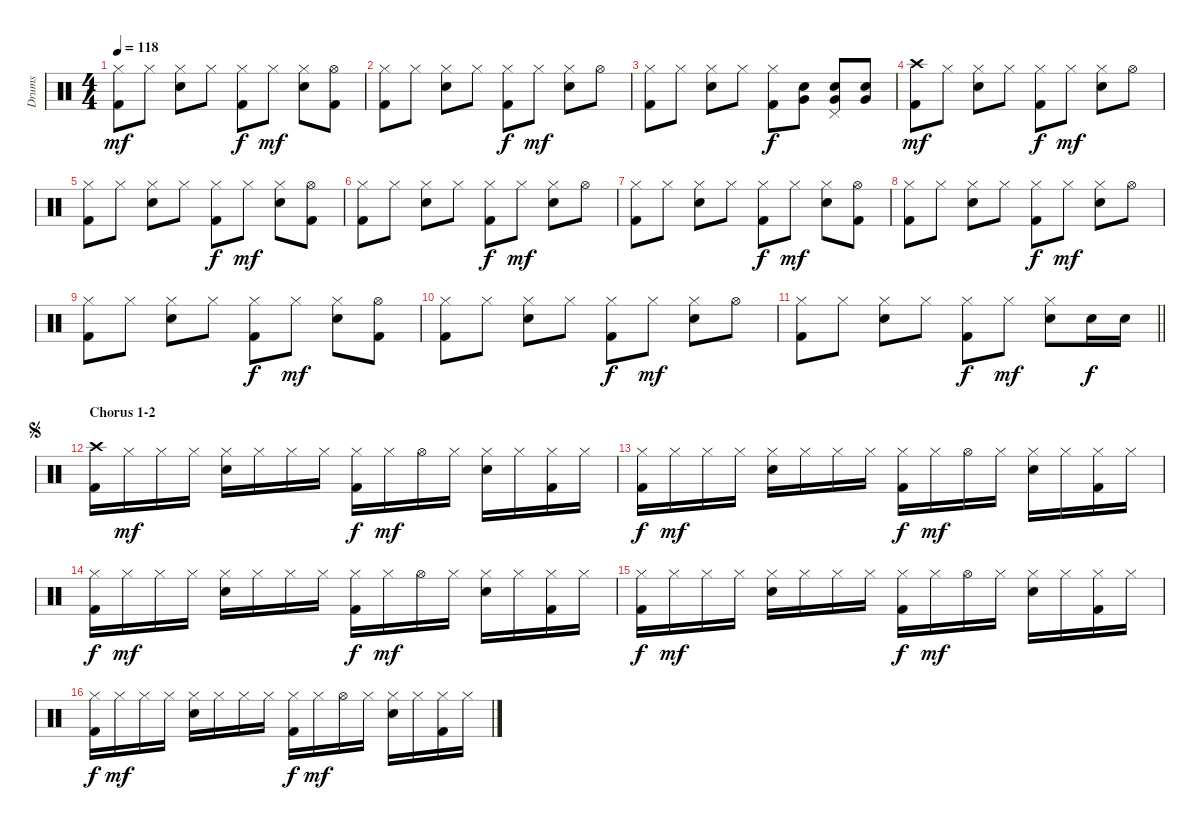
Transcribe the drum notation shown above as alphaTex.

\track ("Drums" "Drums") {instrument percussion}
\staff {score}
\articulation defaults
\ts (4 4)
\tempo 118
\clef neutral
\ks c
("Hi-Hat (closed)" "Kick (hit) 2").8{dy mf} "Hi-Hat (closed)".8 ("Hi-Hat (closed)" "Snare (hit) 2").8 "Hi-Hat (closed)".8 ("Hi-Hat (closed)" "Kick (hit) 2").8{dy f} "Hi-Hat (closed)".8{dy mf} ("Hi-Hat (closed)" "Snare (hit) 2").8 ("Hi-Hat (open)" "Kick (hit) 2").8 |
("Hi-Hat (closed)" "Kick (hit) 2").8 "Hi-Hat (closed)".8 ("Hi-Hat (closed)" "Snare (hit) 2").8 "Hi-Hat (closed)".8 ("Hi-Hat (closed)" "Kick (hit) 2").8{dy f} "Hi-Hat (closed)".8{dy mf} ("Hi-Hat (closed)" "Snare (hit) 2").8 "Hi-Hat (open)".8 |
("Hi-Hat (closed)" "Kick (hit) 2").8 "Hi-Hat (closed)".8 ("Hi-Hat (closed)" "Snare (hit) 2").8 "Hi-Hat (closed)".8 ("Hi-Hat (closed)" "Kick (hit) 2").8{dy f} ("Snare (hit) 2" "Very Low Tom (hit)").8 ("Pedal Hi-Hat (hit)" "Snare (hit) 2" "Very Low Tom (hit)").8 ("Snare (hit) 2" "Very Low Tom (hit)").8 |
("Crash high (hit)" "Kick (hit) 2").8{dy mf} "Hi-Hat (closed)".8 ("Hi-Hat (closed)" "Snare (hit) 2").8 "Hi-Hat (closed)".8 ("Hi-Hat (closed)" "Kick (hit) 2").8{dy f} "Hi-Hat (closed)".8{dy mf} ("Hi-Hat (closed)" "Snare (hit) 2").8 "Hi-Hat (open)".8 |
("Hi-Hat (closed)" "Kick (hit) 2").8 "Hi-Hat (closed)".8 ("Hi-Hat (closed)" "Snare (hit) 2").8 "Hi-Hat (closed)".8 ("Hi-Hat (closed)" "Kick (hit) 2").8{dy f} "Hi-Hat (closed)".8{dy mf} ("Hi-Hat (closed)" "Snare (hit) 2").8 ("Hi-Hat (open)" "Kick (hit) 2").8 |
("Hi-Hat (closed)" "Kick (hit) 2").8 "Hi-Hat (closed)".8 ("Hi-Hat (closed)" "Snare (hit) 2").8 "Hi-Hat (closed)".8 ("Hi-Hat (closed)" "Kick (hit) 2").8{dy f} "Hi-Hat (closed)".8{dy mf} ("Hi-Hat (closed)" "Snare (hit) 2").8 "Hi-Hat (open)".8 |
("Hi-Hat (closed)" "Kick (hit) 2").8 "Hi-Hat (closed)".8 ("Hi-Hat (closed)" "Snare (hit) 2").8 "Hi-Hat (closed)".8 ("Hi-Hat (closed)" "Kick (hit) 2").8{dy f} "Hi-Hat (closed)".8{dy mf} ("Hi-Hat (closed)" "Snare (hit) 2").8 ("Hi-Hat (open)" "Kick (hit) 2").8 |
("Hi-Hat (closed)" "Kick (hit) 2").8 "Hi-Hat (closed)".8 ("Hi-Hat (closed)" "Snare (hit) 2").8 "Hi-Hat (closed)".8 ("Hi-Hat (closed)" "Kick (hit) 2").8{dy f} "Hi-Hat (closed)".8{dy mf} ("Hi-Hat (closed)" "Snare (hit) 2").8 "Hi-Hat (open)".8 |
("Hi-Hat (closed)" "Kick (hit) 2").8 "Hi-Hat (closed)".8 ("Hi-Hat (closed)" "Snare (hit) 2").8 "Hi-Hat (closed)".8 ("Hi-Hat (closed)" "Kick (hit) 2").8{dy f} "Hi-Hat (closed)".8{dy mf} ("Hi-Hat (closed)" "Snare (hit) 2").8 ("Hi-Hat (open)" "Kick (hit) 2").8 |
("Hi-Hat (closed)" "Kick (hit) 2").8 "Hi-Hat (closed)".8 ("Hi-Hat (closed)" "Snare (hit) 2").8 "Hi-Hat (closed)".8 ("Hi-Hat (closed)" "Kick (hit) 2").8{dy f} "Hi-Hat (closed)".8{dy mf} ("Hi-Hat (closed)" "Snare (hit) 2").8 "Hi-Hat (open)".8 |
\barLineRight lightlight
("Hi-Hat (closed)" "Kick (hit) 2").8 "Hi-Hat (closed)".8 ("Hi-Hat (closed)" "Snare (hit) 2").8 "Hi-Hat (closed)".8 ("Hi-Hat (closed)" "Kick (hit) 2").8{dy f} "Hi-Hat (closed)".8{dy mf} ("Hi-Hat (closed)" "Snare (hit) 2").8 "Snare (hit) 2".16{dy f} "Snare (hit) 2".16 |
\section ("" "Chorus 1-2")
\jump segno
("Crash high (hit)" "Kick (hit) 2").16 "Hi-Hat (closed)".16{dy mf} "Hi-Hat (closed)".16 "Hi-Hat (closed)".16 ("Hi-Hat (closed)" "Snare (hit) 2").16 "Hi-Hat (closed)".16 "Hi-Hat (closed)".16 "Hi-Hat (closed)".16 ("Hi-Hat (closed)" "Kick (hit) 2").16{dy f} "Hi-Hat (closed)".16{dy mf} "Hi-Hat (open)".16 "Hi-Hat (closed)".16 ("Hi-Hat (closed)" "Snare (hit) 2").16 "Hi-Hat (closed)".16 ("Hi-Hat (closed)" "Kick (hit) 2").16 "Hi-Hat (closed)".16 |
("Hi-Hat (closed)" "Kick (hit) 2").16{dy f} "Hi-Hat (closed)".16{dy mf} "Hi-Hat (closed)".16 "Hi-Hat (closed)".16 ("Hi-Hat (closed)" "Snare (hit) 2").16 "Hi-Hat (closed)".16 "Hi-Hat (closed)".16 "Hi-Hat (closed)".16 ("Hi-Hat (closed)" "Kick (hit) 2").16{dy f} "Hi-Hat (closed)".16{dy mf} "Hi-Hat (open)".16 "Hi-Hat (closed)".16 ("Hi-Hat (closed)" "Snare (hit) 2").16 "Hi-Hat (closed)".16 ("Hi-Hat (closed)" "Kick (hit) 2").16 "Hi-Hat (closed)".16 |
("Hi-Hat (closed)" "Kick (hit) 2").16{dy f} "Hi-Hat (closed)".16{dy mf} "Hi-Hat (closed)".16 "Hi-Hat (closed)".16 ("Hi-Hat (closed)" "Snare (hit) 2").16 "Hi-Hat (closed)".16 "Hi-Hat (closed)".16 "Hi-Hat (closed)".16 ("Hi-Hat (closed)" "Kick (hit) 2").16{dy f} "Hi-Hat (closed)".16{dy mf} "Hi-Hat (open)".16 "Hi-Hat (closed)".16 ("Hi-Hat (closed)" "Snare (hit) 2").16 "Hi-Hat (closed)".16 ("Hi-Hat (closed)" "Kick (hit) 2").16 "Hi-Hat (closed)".16 |
("Hi-Hat (closed)" "Kick (hit) 2").16{dy f} "Hi-Hat (closed)".16{dy mf} "Hi-Hat (closed)".16 "Hi-Hat (closed)".16 ("Hi-Hat (closed)" "Snare (hit) 2").16 "Hi-Hat (closed)".16 "Hi-Hat (closed)".16 "Hi-Hat (closed)".16 ("Hi-Hat (closed)" "Kick (hit) 2").16{dy f} "Hi-Hat (closed)".16{dy mf} "Hi-Hat (open)".16 "Hi-Hat (closed)".16 ("Hi-Hat (closed)" "Snare (hit) 2").16 "Hi-Hat (closed)".16 ("Hi-Hat (closed)" "Kick (hit) 2").16 "Hi-Hat (closed)".16 |
("Hi-Hat (closed)" "Kick (hit) 2").16{dy f} "Hi-Hat (closed)".16{dy mf} "Hi-Hat (closed)".16 "Hi-Hat (closed)".16 ("Hi-Hat (closed)" "Snare (hit) 2").16 "Hi-Hat (closed)".16 "Hi-Hat (closed)".16 "Hi-Hat (closed)".16 ("Hi-Hat (closed)" "Kick (hit) 2").16{dy f} "Hi-Hat (closed)".16{dy mf} "Hi-Hat (open)".16 "Hi-Hat (closed)".16 ("Hi-Hat (closed)" "Snare (hit) 2").16 "Hi-Hat (closed)".16 ("Hi-Hat (closed)" "Kick (hit) 2").16 "Hi-Hat (closed)".16
